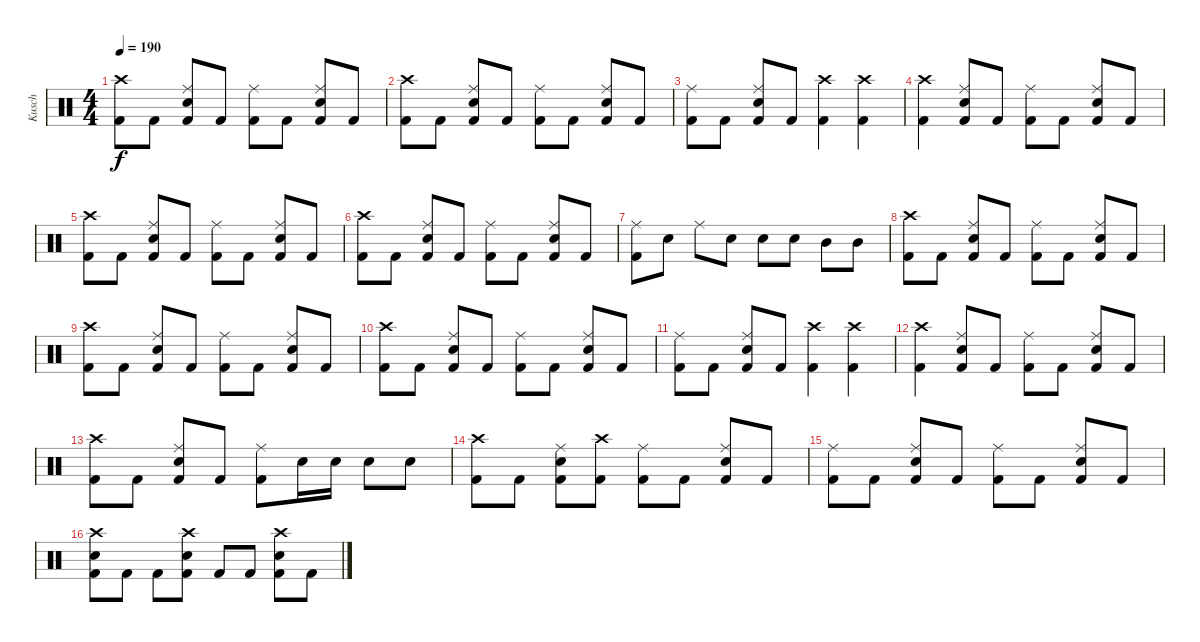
\track ("Kusch" "Kusch") {instrument percussion}
\staff {score}
\articulation defaults
\ts (4 4)
\tempo 190
\clef neutral
\ks c
("Crash high (hit)" "Kick (hit) 2").8{dy f} "Kick (hit) 2".8 ("Ride (middle)" "Electric Snare (hit)" "Kick (hit) 2").8 "Kick (hit) 2".8 ("Ride (middle)" "Kick (hit) 2").8 "Kick (hit) 2".8 ("Ride (middle)" "Electric Snare (hit)" "Kick (hit) 2").8 "Kick (hit) 2".8 |
("Crash high (hit)" "Kick (hit) 2").8 "Kick (hit) 2".8 ("Ride (middle)" "Electric Snare (hit)" "Kick (hit) 2").8 "Kick (hit) 2".8 ("Ride (middle)" "Kick (hit) 2").8 "Kick (hit) 2".8 ("Ride (middle)" "Electric Snare (hit)" "Kick (hit) 2").8 "Kick (hit) 2".8 |
("Ride (middle)" "Kick (hit) 2").8 "Kick (hit) 2".8 ("Ride (middle)" "Electric Snare (hit)" "Kick (hit) 2").8 "Kick (hit) 2".8 ("Crash high (hit)" "Kick (hit) 2").4 ("Crash high (hit)" "Kick (hit) 2").4 |
("Crash high (hit)" "Kick (hit) 2").4 ("Ride (middle)" "Electric Snare (hit)" "Kick (hit) 2").8 "Kick (hit) 2".8 ("Ride (middle)" "Kick (hit) 2").8 "Kick (hit) 2".8 ("Ride (middle)" "Electric Snare (hit)" "Kick (hit) 2").8 "Kick (hit) 2".8 |
("Crash high (hit)" "Kick (hit) 2").8 "Kick (hit) 2".8 ("Ride (middle)" "Electric Snare (hit)" "Kick (hit) 2").8 "Kick (hit) 2".8 ("Ride (middle)" "Kick (hit) 2").8 "Kick (hit) 2".8 ("Ride (middle)" "Electric Snare (hit)" "Kick (hit) 2").8 "Kick (hit) 2".8 |
("Crash high (hit)" "Kick (hit) 2").8 "Kick (hit) 2".8 ("Ride (middle)" "Electric Snare (hit)" "Kick (hit) 2").8 "Kick (hit) 2".8 ("Ride (middle)" "Kick (hit) 2").8 "Kick (hit) 2".8 ("Ride (middle)" "Electric Snare (hit)" "Kick (hit) 2").8 "Kick (hit) 2".8 |
("Ride (middle)" "Kick (hit) 2").8 "Electric Snare (hit)".8 "Ride (middle)".8 "Electric Snare (hit)".8 "Electric Snare (hit)".8 "Electric Snare (hit)".8 "Mid Tom (hit)".8 "Mid Tom (hit)".8 |
("Crash high (hit)" "Kick (hit) 2").8 "Kick (hit) 2".8 ("Ride (middle)" "Electric Snare (hit)" "Kick (hit) 2").8 "Kick (hit) 2".8 ("Ride (middle)" "Kick (hit) 2").8 "Kick (hit) 2".8 ("Ride (middle)" "Electric Snare (hit)" "Kick (hit) 2").8 "Kick (hit) 2".8 |
("Crash high (hit)" "Kick (hit) 2").8 "Kick (hit) 2".8 ("Ride (middle)" "Electric Snare (hit)" "Kick (hit) 2").8 "Kick (hit) 2".8 ("Ride (middle)" "Kick (hit) 2").8 "Kick (hit) 2".8 ("Ride (middle)" "Electric Snare (hit)" "Kick (hit) 2").8 "Kick (hit) 2".8 |
("Crash high (hit)" "Kick (hit) 2").8 "Kick (hit) 2".8 ("Ride (middle)" "Electric Snare (hit)" "Kick (hit) 2").8 "Kick (hit) 2".8 ("Ride (middle)" "Kick (hit) 2").8 "Kick (hit) 2".8 ("Ride (middle)" "Electric Snare (hit)" "Kick (hit) 2").8 "Kick (hit) 2".8 |
("Ride (middle)" "Kick (hit) 2").8 "Kick (hit) 2".8 ("Ride (middle)" "Electric Snare (hit)" "Kick (hit) 2").8 "Kick (hit) 2".8 ("Crash high (hit)" "Kick (hit) 2").4 ("Crash high (hit)" "Kick (hit) 2").4 |
("Crash high (hit)" "Kick (hit) 2").4 ("Ride (middle)" "Electric Snare (hit)" "Kick (hit) 2").8 "Kick (hit) 2".8 ("Ride (middle)" "Kick (hit) 2").8 "Kick (hit) 2".8 ("Ride (middle)" "Electric Snare (hit)" "Kick (hit) 2").8 "Kick (hit) 2".8 |
("Crash high (hit)" "Kick (hit) 2").8 "Kick (hit) 2".8 ("Ride (middle)" "Electric Snare (hit)" "Kick (hit) 2").8 "Kick (hit) 2".8 ("Ride (middle)" "Kick (hit) 2").8 "Electric Snare (hit)".16 "Electric Snare (hit)".16 "Electric Snare (hit)".8 "Electric Snare (hit)".8 |
("Crash high (hit)" "Kick (hit) 2").8 "Kick (hit) 2".8 ("Ride (middle)" "Electric Snare (hit)" "Kick (hit) 2").8 ("Crash high (hit)" "Kick (hit) 2").8 ("Ride (middle)" "Kick (hit) 2").8 "Kick (hit) 2".8 ("Ride (middle)" "Electric Snare (hit)" "Kick (hit) 2").8 "Kick (hit) 2".8 |
("Ride (middle)" "Kick (hit) 2").8 "Kick (hit) 2".8 ("Ride (middle)" "Electric Snare (hit)" "Kick (hit) 2").8 "Kick (hit) 2".8 ("Ride (middle)" "Kick (hit) 2").8 "Kick (hit) 2".8 ("Ride (middle)" "Electric Snare (hit)" "Kick (hit) 2").8 "Kick (hit) 2".8 |
("Crash high (hit)" "Electric Snare (hit)" "Kick (hit) 2").8 "Kick (hit) 2".8 "Kick (hit) 2".8 ("Crash high (hit)" "Electric Snare (hit)" "Kick (hit) 2").8 "Kick (hit) 2".8 "Kick (hit) 2".8 ("Crash high (hit)" "Electric Snare (hit)" "Kick (hit) 2").8 "Kick (hit) 2".8
